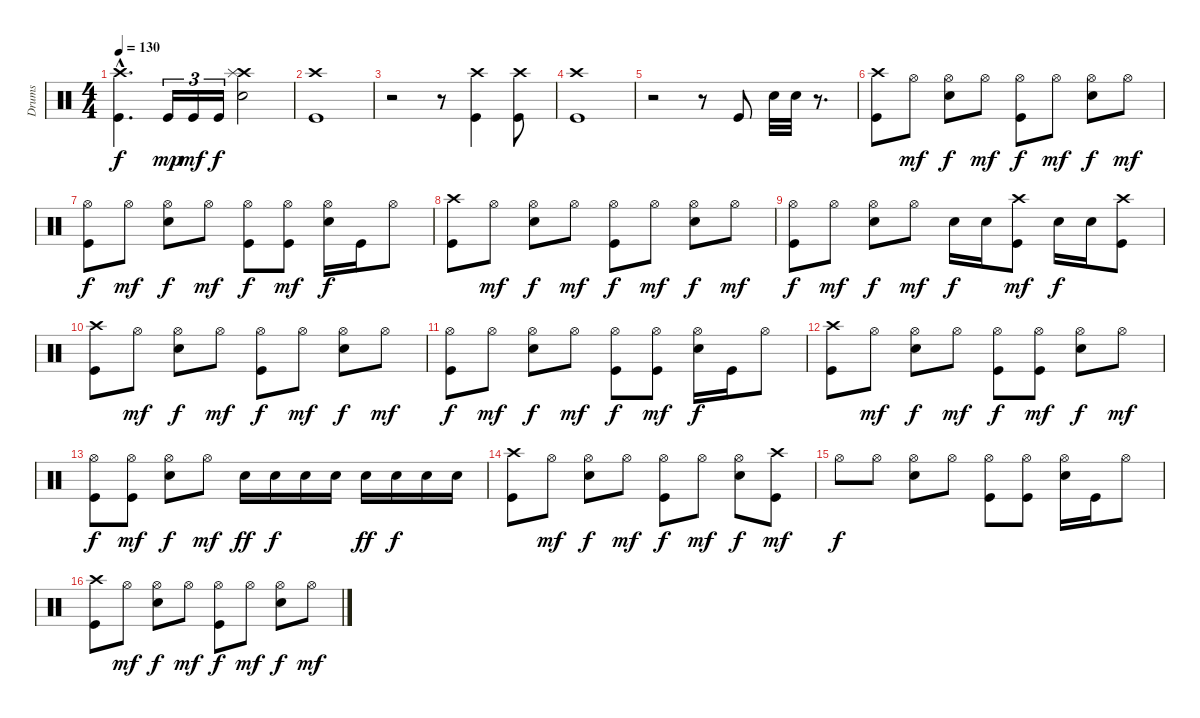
\track ("Drums" "Drums") {instrument percussion}
\staff {score}
\articulation defaults
\ts (4 4)
\tempo 130
\clef neutral
\ks c
("Crash high (hit)"{hac} "Kick (hit)"{hac}).4{d dy f} "Kick (hit)".16{tu (3 2) dy mp} "Kick (hit)".16{tu (3 2) dy mf} "Kick (hit)".16{tu (3 2) dy f} ("Crash high (hit)" "Splash (hit)" "Snare (hit) 2").2 |
("Crash high (hit)" "Kick (hit)").1 |
r.2 r.8 ("Crash high (hit)" "Kick (hit)").4 ("Crash high (hit)" "Kick (hit)").8 |
("Crash high (hit)" "Kick (hit)").1 |
r.2 r.8 "Kick (hit)".8 "Snare (hit) 2".32 "Snare (hit) 2".32 r.8{d} |
("Crash high (hit)" "Kick (hit)").8 "Hi-Hat (open)".8{dy mf} ("Hi-Hat (open)" "Snare (hit) 2").8{dy f} "Hi-Hat (open)".8{dy mf} ("Hi-Hat (open)" "Kick (hit)").8{dy f} "Hi-Hat (open)".8{dy mf} ("Hi-Hat (open)" "Snare (hit) 2").8{dy f} "Hi-Hat (open)".8{dy mf} |
("Hi-Hat (open)" "Kick (hit)").8{dy f} "Hi-Hat (open)".8{dy mf} ("Hi-Hat (open)" "Snare (hit) 2").8{dy f} "Hi-Hat (open)".8{dy mf} ("Hi-Hat (open)" "Kick (hit)").8{dy f} ("Hi-Hat (open)" "Kick (hit)").8{dy mf} ("Hi-Hat (open)" "Snare (hit) 2").16{dy f} "Kick (hit)".16 "Hi-Hat (open)".8 |
("Crash high (hit)" "Kick (hit)").8 "Hi-Hat (open)".8{dy mf} ("Hi-Hat (open)" "Snare (hit) 2").8{dy f} "Hi-Hat (open)".8{dy mf} ("Hi-Hat (open)" "Kick (hit)").8{dy f} "Hi-Hat (open)".8{dy mf} ("Hi-Hat (open)" "Snare (hit) 2").8{dy f} "Hi-Hat (open)".8{dy mf} |
("Hi-Hat (open)" "Kick (hit)").8{dy f} "Hi-Hat (open)".8{dy mf} ("Hi-Hat (open)" "Snare (hit) 2").8{dy f} "Hi-Hat (open)".8{dy mf} "Snare (hit) 2".16{dy f} "Snare (hit) 2".16 ("Crash high (hit)" "Kick (hit)").8{dy mf} "Snare (hit) 2".16{dy f} "Snare (hit) 2".16 ("Crash high (hit)" "Kick (hit)").8 |
("Crash high (hit)" "Kick (hit)").8 "Hi-Hat (open)".8{dy mf} ("Hi-Hat (open)" "Snare (hit) 2").8{dy f} "Hi-Hat (open)".8{dy mf} ("Hi-Hat (open)" "Kick (hit)").8{dy f} "Hi-Hat (open)".8{dy mf} ("Hi-Hat (open)" "Snare (hit) 2").8{dy f} "Hi-Hat (open)".8{dy mf} |
("Hi-Hat (open)" "Kick (hit)").8{dy f} "Hi-Hat (open)".8{dy mf} ("Hi-Hat (open)" "Snare (hit) 2").8{dy f} "Hi-Hat (open)".8{dy mf} ("Hi-Hat (open)" "Kick (hit)").8{dy f} ("Hi-Hat (open)" "Kick (hit)").8{dy mf} ("Hi-Hat (open)" "Snare (hit) 2").16{dy f} "Kick (hit)".16 "Hi-Hat (open)".8 |
("Crash high (hit)" "Kick (hit)").8 "Hi-Hat (open)".8{dy mf} ("Hi-Hat (open)" "Snare (hit) 2").8{dy f} "Hi-Hat (open)".8{dy mf} ("Hi-Hat (open)" "Kick (hit)").8{dy f} ("Hi-Hat (open)" "Kick (hit)").8{dy mf} ("Hi-Hat (open)" "Snare (hit) 2").8{dy f} "Hi-Hat (open)".8{dy mf} |
("Hi-Hat (open)" "Kick (hit)").8{dy f} ("Hi-Hat (open)" "Kick (hit)").8{dy mf} ("Hi-Hat (open)" "Snare (hit) 2").8{dy f} "Hi-Hat (open)".8{dy mf} "Snare (hit) 2".16{dy ff} "Snare (hit) 2".16{dy f} "Snare (hit) 2".16 "Snare (hit) 2".16 "Snare (hit) 2".16{dy ff} "Snare (hit) 2".16{dy f} "Snare (hit) 2".16 "Snare (hit) 2".16 |
("Crash high (hit)" "Kick (hit)").8 "Hi-Hat (open)".8{dy mf} ("Hi-Hat (open)" "Snare (hit) 2").8{dy f} "Hi-Hat (open)".8{dy mf} ("Hi-Hat (open)" "Kick (hit)").8{dy f} "Hi-Hat (open)".8{dy mf} ("Hi-Hat (open)" "Snare (hit) 2").8{dy f} ("Crash high (hit)" "Kick (hit)").8{dy mf} |
"Hi-Hat (open)".8{dy f} "Hi-Hat (open)".8 ("Hi-Hat (open)" "Snare (hit) 2").8 "Hi-Hat (open)".8 ("Hi-Hat (open)" "Kick (hit)").8 ("Hi-Hat (open)" "Kick (hit)").8 ("Hi-Hat (open)" "Snare (hit) 2").16 "Kick (hit)".16 "Hi-Hat (open)".8 |
("Crash high (hit)" "Kick (hit)").8 "Hi-Hat (open)".8{dy mf} ("Hi-Hat (open)" "Snare (hit) 2").8{dy f} "Hi-Hat (open)".8{dy mf} ("Hi-Hat (open)" "Kick (hit)").8{dy f} "Hi-Hat (open)".8{dy mf} ("Hi-Hat (open)" "Snare (hit) 2").8{dy f} "Hi-Hat (open)".8{dy mf}
